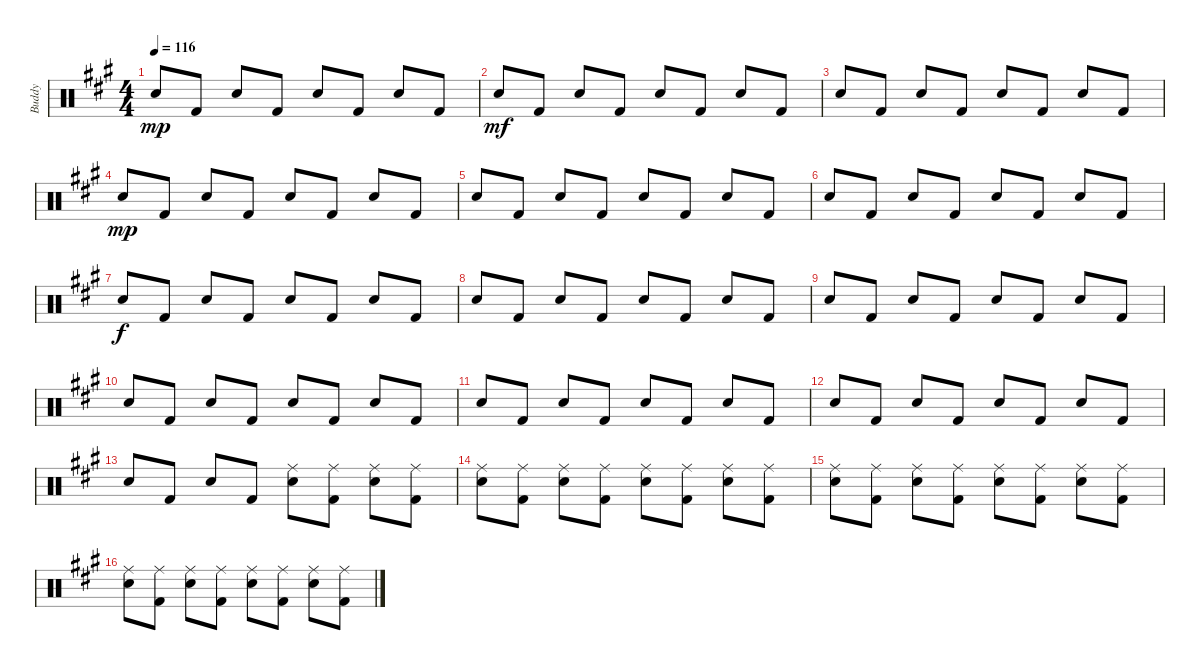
\track ("Buddy" "Buddy") {instrument percussion}
\staff {score}
\articulation defaults
\ts (4 4)
\tempo 116
\clef neutral
\ks a "Snare (hit) 2".8{dy mp} "Kick (hit) 2".8 "Snare (hit) 2".8 "Kick (hit) 2".8 "Snare (hit) 2".8 "Kick (hit) 2".8 "Snare (hit) 2".8 "Kick (hit) 2".8
|
"Snare (hit) 2".8{dy mf} "Kick (hit) 2".8 "Snare (hit) 2".8 "Kick (hit) 2".8 "Snare (hit) 2".8 "Kick (hit) 2".8 "Snare (hit) 2".8 "Kick (hit) 2".8 |
"Snare (hit) 2".8 "Kick (hit) 2".8 "Snare (hit) 2".8 "Kick (hit) 2".8 "Snare (hit) 2".8 "Kick (hit) 2".8 "Snare (hit) 2".8 "Kick (hit) 2".8 |
"Snare (hit) 2".8{dy mp} "Kick (hit) 2".8 "Snare (hit) 2".8 "Kick (hit) 2".8 "Snare (hit) 2".8 "Kick (hit) 2".8 "Snare (hit) 2".8 "Kick (hit) 2".8 |
"Snare (hit) 2".8 "Kick (hit) 2".8 "Snare (hit) 2".8 "Kick (hit) 2".8 "Snare (hit) 2".8 "Kick (hit) 2".8 "Snare (hit) 2".8 "Kick (hit) 2".8 |
"Snare (hit) 2".8 "Kick (hit) 2".8 "Snare (hit) 2".8 "Kick (hit) 2".8 "Snare (hit) 2".8 "Kick (hit) 2".8 "Snare (hit) 2".8 "Kick (hit) 2".8 |
"Snare (hit) 2".8{dy f} "Kick (hit) 2".8 "Snare (hit) 2".8 "Kick (hit) 2".8 "Snare (hit) 2".8 "Kick (hit) 2".8 "Snare (hit) 2".8 "Kick (hit) 2".8 |
"Snare (hit) 2".8 "Kick (hit) 2".8 "Snare (hit) 2".8 "Kick (hit) 2".8 "Snare (hit) 2".8 "Kick (hit) 2".8 "Snare (hit) 2".8 "Kick (hit) 2".8 |
"Snare (hit) 2".8 "Kick (hit) 2".8 "Snare (hit) 2".8 "Kick (hit) 2".8 "Snare (hit) 2".8 "Kick (hit) 2".8 "Snare (hit) 2".8 "Kick (hit) 2".8 |
"Snare (hit) 2".8 "Kick (hit) 2".8 "Snare (hit) 2".8 "Kick (hit) 2".8 "Snare (hit) 2".8 "Kick (hit) 2".8 "Snare (hit) 2".8 "Kick (hit) 2".8 |
"Snare (hit) 2".8 "Kick (hit) 2".8 "Snare (hit) 2".8 "Kick (hit) 2".8 "Snare (hit) 2".8 "Kick (hit) 2".8 "Snare (hit) 2".8 "Kick (hit) 2".8 |
"Snare (hit) 2".8 "Kick (hit) 2".8 "Snare (hit) 2".8 "Kick (hit) 2".8 "Snare (hit) 2".8 "Kick (hit) 2".8 "Snare (hit) 2".8 "Kick (hit) 2".8 |
"Snare (hit) 2".8 "Kick (hit) 2".8 "Snare (hit) 2".8 "Kick (hit) 2".8 ("Ride (middle)" "Snare (hit) 2").8 ("Ride (middle)" "Kick (hit) 2").8 ("Ride (middle)" "Snare (hit) 2").8 ("Ride (middle)" "Kick (hit) 2").8 |
("Ride (middle)" "Snare (hit) 2").8 ("Ride (middle)" "Kick (hit) 2").8 ("Ride (middle)" "Snare (hit) 2").8 ("Ride (middle)" "Kick (hit) 2").8 ("Ride (middle)" "Snare (hit) 2").8 ("Ride (middle)" "Kick (hit) 2").8 ("Ride (middle)" "Snare (hit) 2").8 ("Ride (middle)" "Kick (hit) 2").8 |
("Ride (middle)" "Snare (hit) 2").8 ("Ride (middle)" "Kick (hit) 2").8 ("Ride (middle)" "Snare (hit) 2").8 ("Ride (middle)" "Kick (hit) 2").8 ("Ride (middle)" "Snare (hit) 2").8 ("Ride (middle)" "Kick (hit) 2").8 ("Ride (middle)" "Snare (hit) 2").8 ("Ride (middle)" "Kick (hit) 2").8 |
("Ride (middle)" "Snare (hit) 2").8 ("Ride (middle)" "Kick (hit) 2").8 ("Ride (middle)" "Snare (hit) 2").8 ("Ride (middle)" "Kick (hit) 2").8 ("Ride (middle)" "Snare (hit) 2").8 ("Ride (middle)" "Kick (hit) 2").8 ("Ride (middle)" "Snare (hit) 2").8 ("Ride (middle)" "Kick (hit) 2").8
